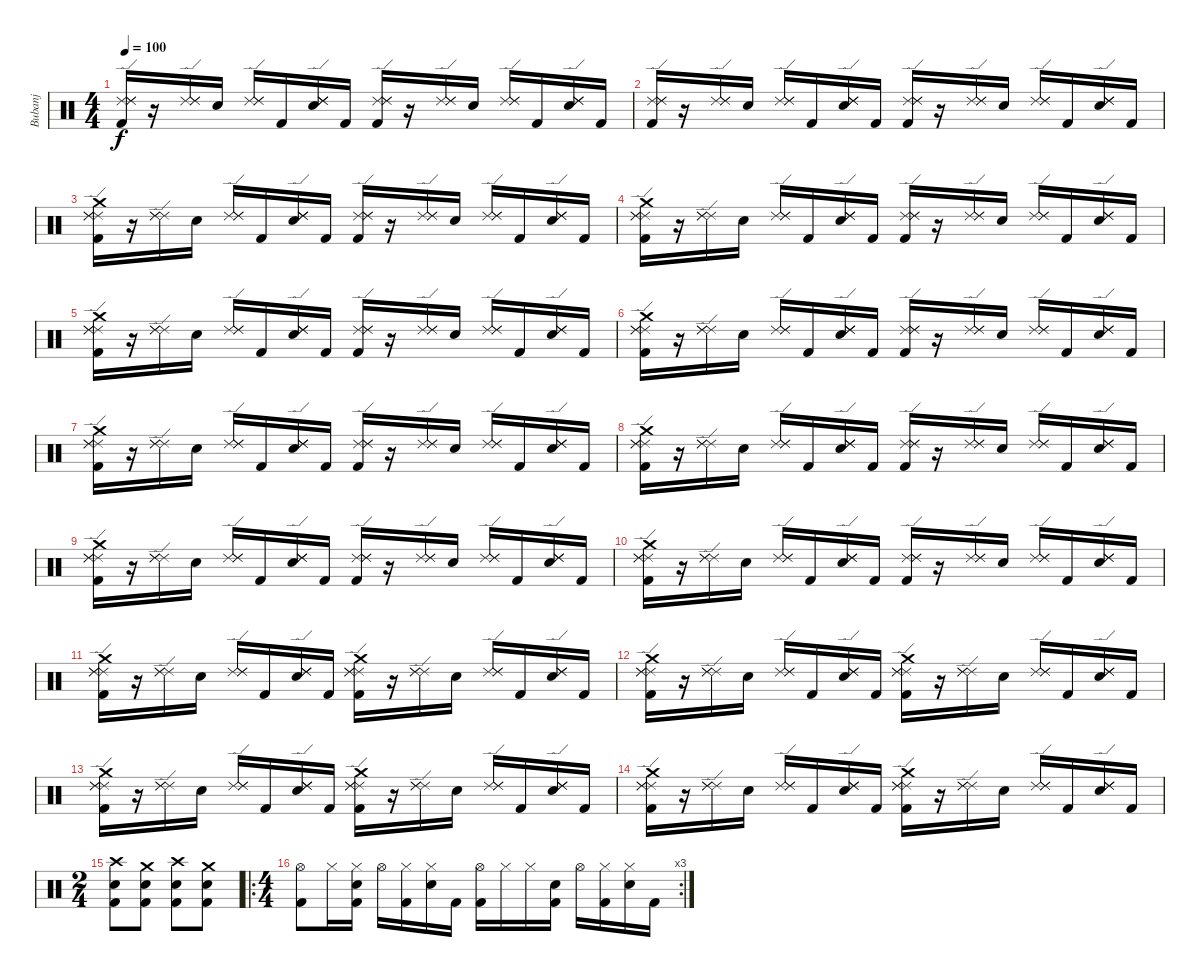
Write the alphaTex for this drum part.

\track ("Bubanj" "Bubanj") {instrument percussion}
\staff {score}
\articulation defaults
\ts (4 4)
\tempo 100
\clef neutral
\ks c
("Kick (hit) 2" "Ride (edge) 2" "Ride (edge) 2" "Ride (edge) 2").16{dy f} r.16 ("Ride (edge) 2" "Ride (edge) 2" "Ride (edge) 2").16 "Snare (hit) 2".16 ("Ride (edge) 2" "Ride (edge) 2" "Ride (edge) 2").16 "Kick (hit) 2".16 ("Snare (hit) 2" "Ride (edge) 2" "Ride (edge) 2" "Ride (edge) 2").16 "Kick (hit) 2".16 ("Kick (hit) 2" "Ride (edge) 2" "Ride (edge) 2" "Ride (edge) 2").16 r.16 ("Ride (edge) 2" "Ride (edge) 2" "Ride (edge) 2").16 "Snare (hit) 2".16 ("Ride (edge) 2" "Ride (edge) 2" "Ride (edge) 2").16 "Kick (hit) 2".16 ("Snare (hit) 2" "Ride (edge) 2" "Ride (edge) 2" "Ride (edge) 2").16 "Kick (hit) 2".16 |
("Kick (hit) 2" "Ride (edge) 2" "Ride (edge) 2" "Ride (edge) 2").16 r.16 ("Ride (edge) 2" "Ride (edge) 2" "Ride (edge) 2").16 "Snare (hit) 2".16 ("Ride (edge) 2" "Ride (edge) 2" "Ride (edge) 2").16 "Kick (hit) 2".16 ("Snare (hit) 2" "Ride (edge) 2" "Ride (edge) 2" "Ride (edge) 2").16 "Kick (hit) 2".16 ("Kick (hit) 2" "Ride (edge) 2" "Ride (edge) 2" "Ride (edge) 2").16 r.16 ("Ride (edge) 2" "Ride (edge) 2" "Ride (edge) 2").16 "Snare (hit) 2".16 ("Ride (edge) 2" "Ride (edge) 2" "Ride (edge) 2").16 "Kick (hit) 2".16 ("Snare (hit) 2" "Ride (edge) 2" "Ride (edge) 2" "Ride (edge) 2").16 "Kick (hit) 2".16 |
("Crash medium (hit)" "Kick (hit) 2" "Ride (edge) 2" "Ride (edge) 2" "Ride (edge) 2").16 r.16 ("Ride (edge) 2" "Ride (edge) 2" "Ride (edge) 2").16 "Snare (hit) 2".16 ("Ride (edge) 2" "Ride (edge) 2" "Ride (edge) 2").16 "Kick (hit) 2".16 ("Snare (hit) 2" "Ride (edge) 2" "Ride (edge) 2" "Ride (edge) 2").16 "Kick (hit) 2".16 ("Kick (hit) 2" "Ride (edge) 2" "Ride (edge) 2" "Ride (edge) 2").16 r.16 ("Ride (edge) 2" "Ride (edge) 2" "Ride (edge) 2").16 "Snare (hit) 2".16 ("Ride (edge) 2" "Ride (edge) 2" "Ride (edge) 2").16 "Kick (hit) 2".16 ("Snare (hit) 2" "Ride (edge) 2" "Ride (edge) 2" "Ride (edge) 2").16 "Kick (hit) 2".16 |
("Crash medium (hit)" "Kick (hit) 2" "Ride (edge) 2" "Ride (edge) 2" "Ride (edge) 2").16 r.16 ("Ride (edge) 2" "Ride (edge) 2" "Ride (edge) 2").16 "Snare (hit) 2".16 ("Ride (edge) 2" "Ride (edge) 2" "Ride (edge) 2").16 "Kick (hit) 2".16 ("Snare (hit) 2" "Ride (edge) 2" "Ride (edge) 2" "Ride (edge) 2").16 "Kick (hit) 2".16 ("Kick (hit) 2" "Ride (edge) 2" "Ride (edge) 2" "Ride (edge) 2").16 r.16 ("Ride (edge) 2" "Ride (edge) 2" "Ride (edge) 2").16 "Snare (hit) 2".16 ("Ride (edge) 2" "Ride (edge) 2" "Ride (edge) 2").16 "Kick (hit) 2".16 ("Snare (hit) 2" "Ride (edge) 2" "Ride (edge) 2" "Ride (edge) 2").16 "Kick (hit) 2".16 |
("Crash medium (hit)" "Kick (hit) 2" "Ride (edge) 2" "Ride (edge) 2" "Ride (edge) 2").16 r.16 ("Ride (edge) 2" "Ride (edge) 2" "Ride (edge) 2").16 "Snare (hit) 2".16 ("Ride (edge) 2" "Ride (edge) 2" "Ride (edge) 2").16 "Kick (hit) 2".16 ("Snare (hit) 2" "Ride (edge) 2" "Ride (edge) 2" "Ride (edge) 2").16 "Kick (hit) 2".16 ("Kick (hit) 2" "Ride (edge) 2" "Ride (edge) 2" "Ride (edge) 2").16 r.16 ("Ride (edge) 2" "Ride (edge) 2" "Ride (edge) 2").16 "Snare (hit) 2".16 ("Ride (edge) 2" "Ride (edge) 2" "Ride (edge) 2").16 "Kick (hit) 2".16 ("Snare (hit) 2" "Ride (edge) 2" "Ride (edge) 2" "Ride (edge) 2").16 "Kick (hit) 2".16 |
("Crash medium (hit)" "Kick (hit) 2" "Ride (edge) 2" "Ride (edge) 2" "Ride (edge) 2").16 r.16 ("Ride (edge) 2" "Ride (edge) 2" "Ride (edge) 2").16 "Snare (hit) 2".16 ("Ride (edge) 2" "Ride (edge) 2" "Ride (edge) 2").16 "Kick (hit) 2".16 ("Snare (hit) 2" "Ride (edge) 2" "Ride (edge) 2" "Ride (edge) 2").16 "Kick (hit) 2".16 ("Kick (hit) 2" "Ride (edge) 2" "Ride (edge) 2" "Ride (edge) 2").16 r.16 ("Ride (edge) 2" "Ride (edge) 2" "Ride (edge) 2").16 "Snare (hit) 2".16 ("Ride (edge) 2" "Ride (edge) 2" "Ride (edge) 2").16 "Kick (hit) 2".16 ("Snare (hit) 2" "Ride (edge) 2" "Ride (edge) 2" "Ride (edge) 2").16 "Kick (hit) 2".16 |
("Crash medium (hit)" "Kick (hit) 2" "Ride (edge) 2" "Ride (edge) 2" "Ride (edge) 2").16 r.16 ("Ride (edge) 2" "Ride (edge) 2" "Ride (edge) 2").16 "Snare (hit) 2".16 ("Ride (edge) 2" "Ride (edge) 2" "Ride (edge) 2").16 "Kick (hit) 2".16 ("Snare (hit) 2" "Ride (edge) 2" "Ride (edge) 2" "Ride (edge) 2").16 "Kick (hit) 2".16 ("Kick (hit) 2" "Ride (edge) 2" "Ride (edge) 2" "Ride (edge) 2").16 r.16 ("Ride (edge) 2" "Ride (edge) 2" "Ride (edge) 2").16 "Snare (hit) 2".16 ("Ride (edge) 2" "Ride (edge) 2" "Ride (edge) 2").16 "Kick (hit) 2".16 ("Snare (hit) 2" "Ride (edge) 2" "Ride (edge) 2" "Ride (edge) 2").16 "Kick (hit) 2".16 |
("Crash medium (hit)" "Kick (hit) 2" "Ride (edge) 2" "Ride (edge) 2" "Ride (edge) 2").16 r.16 ("Ride (edge) 2" "Ride (edge) 2" "Ride (edge) 2").16 "Snare (hit) 2".16 ("Ride (edge) 2" "Ride (edge) 2" "Ride (edge) 2").16 "Kick (hit) 2".16 ("Snare (hit) 2" "Ride (edge) 2" "Ride (edge) 2" "Ride (edge) 2").16 "Kick (hit) 2".16 ("Kick (hit) 2" "Ride (edge) 2" "Ride (edge) 2" "Ride (edge) 2").16 r.16 ("Ride (edge) 2" "Ride (edge) 2" "Ride (edge) 2").16 "Snare (hit) 2".16 ("Ride (edge) 2" "Ride (edge) 2" "Ride (edge) 2").16 "Kick (hit) 2".16 ("Snare (hit) 2" "Ride (edge) 2" "Ride (edge) 2" "Ride (edge) 2").16 "Kick (hit) 2".16 |
("Crash medium (hit)" "Kick (hit) 2" "Ride (edge) 2" "Ride (edge) 2" "Ride (edge) 2").16 r.16 ("Ride (edge) 2" "Ride (edge) 2" "Ride (edge) 2").16 "Snare (hit) 2".16 ("Ride (edge) 2" "Ride (edge) 2" "Ride (edge) 2").16 "Kick (hit) 2".16 ("Snare (hit) 2" "Ride (edge) 2" "Ride (edge) 2" "Ride (edge) 2").16 "Kick (hit) 2".16 ("Kick (hit) 2" "Ride (edge) 2" "Ride (edge) 2" "Ride (edge) 2").16 r.16 ("Ride (edge) 2" "Ride (edge) 2" "Ride (edge) 2").16 "Snare (hit) 2".16 ("Ride (edge) 2" "Ride (edge) 2" "Ride (edge) 2").16 "Kick (hit) 2".16 ("Snare (hit) 2" "Ride (edge) 2" "Ride (edge) 2" "Ride (edge) 2").16 "Kick (hit) 2".16 |
("Crash medium (hit)" "Kick (hit) 2" "Ride (edge) 2" "Ride (edge) 2" "Ride (edge) 2").16 r.16 ("Ride (edge) 2" "Ride (edge) 2" "Ride (edge) 2").16 "Snare (hit) 2".16 ("Ride (edge) 2" "Ride (edge) 2" "Ride (edge) 2").16 "Kick (hit) 2".16 ("Snare (hit) 2" "Ride (edge) 2" "Ride (edge) 2" "Ride (edge) 2").16 "Kick (hit) 2".16 ("Kick (hit) 2" "Ride (edge) 2" "Ride (edge) 2" "Ride (edge) 2").16 r.16 ("Ride (edge) 2" "Ride (edge) 2" "Ride (edge) 2").16 "Snare (hit) 2".16 ("Ride (edge) 2" "Ride (edge) 2" "Ride (edge) 2").16 "Kick (hit) 2".16 ("Snare (hit) 2" "Ride (edge) 2" "Ride (edge) 2" "Ride (edge) 2").16 "Kick (hit) 2".16 |
("Crash medium (hit)" "Kick (hit) 2" "Ride (edge) 2" "Ride (edge) 2" "Ride (edge) 2").16 r.16 ("Ride (edge) 2" "Ride (edge) 2" "Ride (edge) 2").16 "Snare (hit) 2".16 ("Ride (edge) 2" "Ride (edge) 2" "Ride (edge) 2").16 "Kick (hit) 2".16 ("Snare (hit) 2" "Ride (edge) 2" "Ride (edge) 2" "Ride (edge) 2").16 "Kick (hit) 2".16 ("Crash medium (hit)" "Kick (hit) 2" "Ride (edge) 2" "Ride (edge) 2" "Ride (edge) 2").16 r.16 ("Ride (edge) 2" "Ride (edge) 2" "Ride (edge) 2").16 "Snare (hit) 2".16 ("Ride (edge) 2" "Ride (edge) 2" "Ride (edge) 2").16 "Kick (hit) 2".16 ("Snare (hit) 2" "Ride (edge) 2" "Ride (edge) 2" "Ride (edge) 2").16 "Kick (hit) 2".16 |
("Crash medium (hit)" "Kick (hit) 2" "Ride (edge) 2" "Ride (edge) 2" "Ride (edge) 2").16 r.16 ("Ride (edge) 2" "Ride (edge) 2" "Ride (edge) 2").16 "Snare (hit) 2".16 ("Ride (edge) 2" "Ride (edge) 2" "Ride (edge) 2").16 "Kick (hit) 2".16 ("Snare (hit) 2" "Ride (edge) 2" "Ride (edge) 2" "Ride (edge) 2").16 "Kick (hit) 2".16 ("Crash medium (hit)" "Kick (hit) 2" "Ride (edge) 2" "Ride (edge) 2" "Ride (edge) 2").16 r.16 ("Ride (edge) 2" "Ride (edge) 2" "Ride (edge) 2").16 "Snare (hit) 2".16 ("Ride (edge) 2" "Ride (edge) 2" "Ride (edge) 2").16 "Kick (hit) 2".16 ("Snare (hit) 2" "Ride (edge) 2" "Ride (edge) 2" "Ride (edge) 2").16 "Kick (hit) 2".16 |
("Crash medium (hit)" "Kick (hit) 2" "Ride (edge) 2" "Ride (edge) 2" "Ride (edge) 2").16 r.16 ("Ride (edge) 2" "Ride (edge) 2" "Ride (edge) 2").16 "Snare (hit) 2".16 ("Ride (edge) 2" "Ride (edge) 2" "Ride (edge) 2").16 "Kick (hit) 2".16 ("Snare (hit) 2" "Ride (edge) 2" "Ride (edge) 2" "Ride (edge) 2").16 "Kick (hit) 2".16 ("Crash medium (hit)" "Kick (hit) 2" "Ride (edge) 2" "Ride (edge) 2" "Ride (edge) 2").16 r.16 ("Ride (edge) 2" "Ride (edge) 2" "Ride (edge) 2").16 "Snare (hit) 2".16 ("Ride (edge) 2" "Ride (edge) 2" "Ride (edge) 2").16 "Kick (hit) 2".16 ("Snare (hit) 2" "Ride (edge) 2" "Ride (edge) 2" "Ride (edge) 2").16 "Kick (hit) 2".16 |
("Crash medium (hit)" "Kick (hit) 2" "Ride (edge) 2" "Ride (edge) 2" "Ride (edge) 2").16 r.16 ("Ride (edge) 2" "Ride (edge) 2" "Ride (edge) 2").16 "Snare (hit) 2".16 ("Ride (edge) 2" "Ride (edge) 2" "Ride (edge) 2").16 "Kick (hit) 2".16 ("Snare (hit) 2" "Ride (edge) 2" "Ride (edge) 2" "Ride (edge) 2").16 "Kick (hit) 2".16 ("Crash medium (hit)" "Kick (hit) 2" "Ride (edge) 2" "Ride (edge) 2" "Ride (edge) 2").16 r.16 ("Ride (edge) 2" "Ride (edge) 2" "Ride (edge) 2").16 "Snare (hit) 2".16 ("Ride (edge) 2" "Ride (edge) 2" "Ride (edge) 2").16 "Kick (hit) 2".16 ("Snare (hit) 2" "Ride (edge) 2" "Ride (edge) 2" "Ride (edge) 2").16 "Kick (hit) 2".16 |
\ts (2 4)
("Kick (hit) 2" "Snare (hit) 2" "Crash high (hit)").8 ("Kick (hit) 2" "Snare (hit) 2" "Crash medium (hit)").8 ("Kick (hit) 2" "Snare (hit) 2" "Crash high (hit)").8 ("Kick (hit) 2" "Snare (hit) 2" "Crash medium (hit)").8 |
\ro
\rc 3
\ts (4 4)
("Hi-Hat (open)" "Kick (hit) 2").8 "Hi-Hat (closed)".16 ("Hi-Hat (closed)" "Snare (hit) 2" "Kick (hit) 2").16 "Hi-Hat (open)".16 ("Hi-Hat (closed)" "Kick (hit) 2").16 ("Hi-Hat (closed)" "Snare (hit) 2").16 "Kick (hit) 2".16 ("Hi-Hat (open)" "Kick (hit) 2").16 "Hi-Hat (closed)".16 "Hi-Hat (closed)".16 ("Snare (hit) 2" "Kick (hit) 2").16 "Hi-Hat (open)".16 ("Hi-Hat (closed)" "Kick (hit) 2").16 ("Hi-Hat (closed)" "Snare (hit) 2").16 "Kick (hit) 2".16
